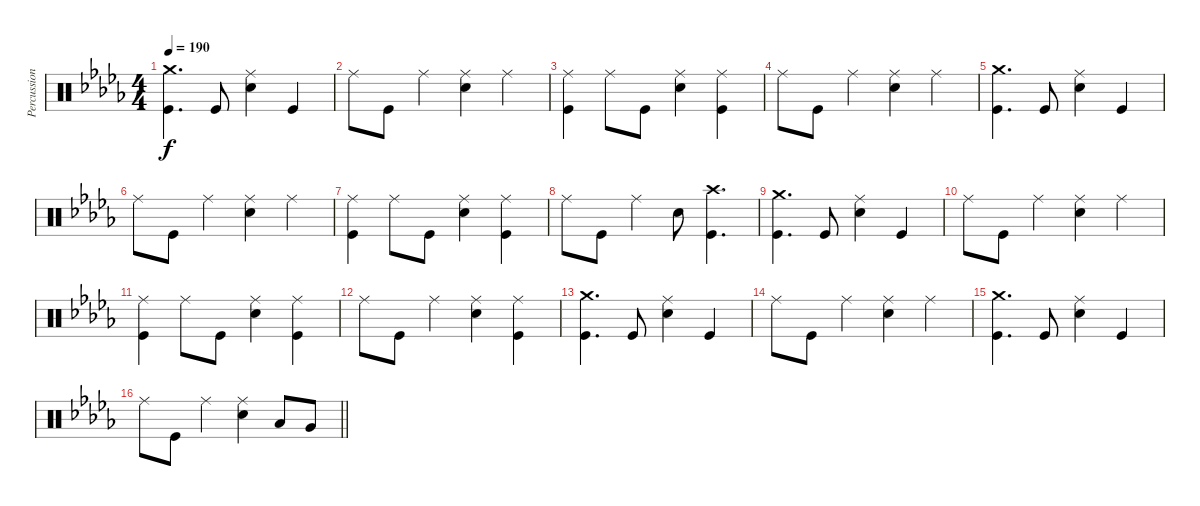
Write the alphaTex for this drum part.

\track ("Percussion" "Percussion") {instrument percussion}
\staff {score}
\articulation defaults
\ts (4 4)
\tempo 190
\clef neutral
\ks db
("Crash medium (hit)" "Kick (hit)").4{d dy f} "Kick (hit)".8 ("Ride (middle)" "Electric Snare (hit)").4 "Kick (hit)".4 |
"Ride (middle)".8 "Kick (hit)".8 "Ride (middle)".4 ("Ride (middle)" "Electric Snare (hit)").4 "Ride (middle)".4 |
("Ride (middle)" "Kick (hit)").4 "Ride (middle)".8 "Kick (hit)".8 ("Ride (middle)" "Electric Snare (hit)").4 ("Ride (middle)" "Kick (hit)").4 |
"Ride (middle)".8 "Kick (hit)".8 "Ride (middle)".4 ("Ride (middle)" "Electric Snare (hit)").4 "Ride (middle)".4 |
("Crash medium (hit)" "Kick (hit)").4{d} "Kick (hit)".8 ("Ride (middle)" "Electric Snare (hit)").4 "Kick (hit)".4 |
"Ride (middle)".8 "Kick (hit)".8 "Ride (middle)".4 ("Ride (middle)" "Electric Snare (hit)").4 "Ride (middle)".4 |
("Ride (middle)" "Kick (hit)").4 "Ride (middle)".8 "Kick (hit)".8 ("Ride (middle)" "Electric Snare (hit)").4 ("Ride (middle)" "Kick (hit)").4 |
"Ride (middle)".8 "Kick (hit)".8 "Ride (middle)".4 "Electric Snare (hit)".8 ("Crash high (hit)" "Kick (hit)").4{d} |
("Crash medium (hit)" "Kick (hit)").4{d} "Kick (hit)".8 ("Ride (middle)" "Electric Snare (hit)").4 "Kick (hit)".4 |
"Ride (middle)".8 "Kick (hit)".8 "Ride (middle)".4 ("Ride (middle)" "Electric Snare (hit)").4 "Ride (middle)".4 |
("Ride (middle)" "Kick (hit)").4 "Ride (middle)".8 "Kick (hit)".8 ("Ride (middle)" "Electric Snare (hit)").4 ("Ride (middle)" "Kick (hit)").4 |
"Ride (middle)".8 "Kick (hit)".8 "Ride (middle)".4 ("Ride (middle)" "Electric Snare (hit)").4 ("Ride (middle)" "Kick (hit)").4 |
("Crash medium (hit)" "Kick (hit)").4{d} "Kick (hit)".8 ("Ride (middle)" "Electric Snare (hit)").4 "Kick (hit)".4 |
"Ride (middle)".8 "Kick (hit)".8 "Ride (middle)".4 ("Ride (middle)" "Electric Snare (hit)").4 "Ride (middle)".4 |
("Crash medium (hit)" "Kick (hit)").4{d} "Kick (hit)".8 ("Ride (middle)" "Electric Snare (hit)").4 "Kick (hit)".4 |
\barLineRight lightlight "Ride (middle)".8 "Kick (hit)".8 "Ride (middle)".4
("Ride (middle)" "Electric Snare (hit)").4 "Low Tom (hit)".8 "Very Low Tom (hit)".8
